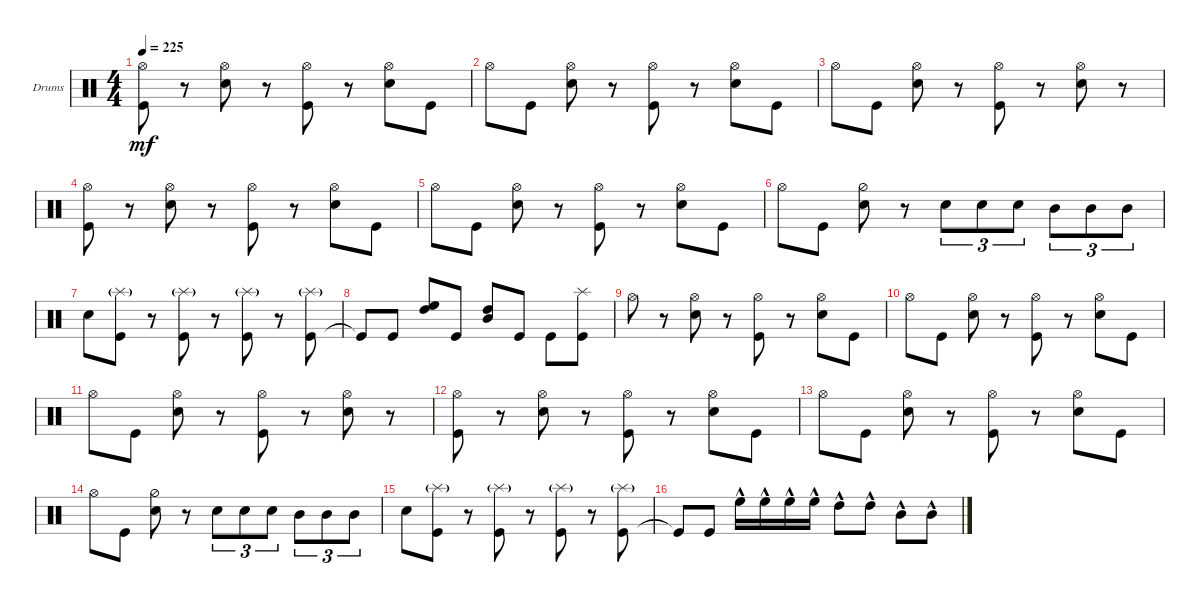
\bracketExtendMode groupsimilarinstruments
\firstSystemTrackNameOrientation horizontal
\otherSystemsTrackNameOrientation horizontal
\track ("Drumkit" "Drums") {instrument percussion}
\staff {score}
\articulation defaults
\ts (4 4)
\tempo 225
\clef neutral
\ks c
("Kick (hit)" "Hi-Hat (open)").8{dy mf} r.8 ("Snare (hit) 2" "Hi-Hat (open)").8 r.8 ("Kick (hit)" "Hi-Hat (open)").8 r.8 ("Snare (hit) 2" "Hi-Hat (open)").8 "Kick (hit)".8 |
"Hi-Hat (open)".8 "Kick (hit)".8 ("Snare (hit) 2" "Hi-Hat (open)").8 r.8 ("Kick (hit)" "Hi-Hat (open)").8 r.8 ("Snare (hit) 2" "Hi-Hat (open)").8 "Kick (hit)".8 |
"Hi-Hat (open)".8 "Kick (hit)".8 ("Snare (hit) 2" "Hi-Hat (open)").8 r.8 ("Kick (hit)" "Hi-Hat (open)").8 r.8 ("Snare (hit) 2" "Hi-Hat (open)").8 r.8 |
("Kick (hit)" "Hi-Hat (open)").8 r.8 ("Snare (hit) 2" "Hi-Hat (open)").8 r.8 ("Kick (hit)" "Hi-Hat (open)").8 r.8 ("Snare (hit) 2" "Hi-Hat (open)").8 "Kick (hit)".8 |
"Hi-Hat (open)".8 "Kick (hit)".8 ("Snare (hit) 2" "Hi-Hat (open)").8 r.8 ("Hi-Hat (open)" "Kick (hit)").8 r.8 ("Snare (hit) 2" "Hi-Hat (open)").8 "Kick (hit)".8 |
"Hi-Hat (open)".8 "Kick (hit)".8 ("Snare (hit) 2" "Hi-Hat (half)").8 r.8 "Snare (hit) 2".8{tu (3 2)} "Snare (hit) 2".8{tu (3 2)} "Snare (hit) 2".8{tu (3 2)} "Mid Tom (hit)".8{tu (3 2)} "Mid Tom (hit)".8{tu (3 2)} "Mid Tom (hit)".8{tu (3 2)} |
"Snare (hit) 2".8 ("Kick (hit)" "Splash (hit)"{g}).8 r.8 ("Kick (hit)" "Splash (hit)"{g}).8 r.8 ("Kick (hit)" "Splash (hit)"{g}).8 r.8 ("Kick (hit)" "Splash (hit)"{g}).8 |
"Kick (hit)"{t}.8 "Kick (hit)".8 ("High Tom (hit)" "High Floor Tom (hit)").8 "Kick (hit)".8 ("High Tom (hit)" "Mid Tom (hit)").8 "Kick (hit)".8 "Kick (hit)".8 ("Kick (hit)" "Splash (hit)").8 |
"Hi-Hat (open)".8 r.8 ("Snare (hit) 2" "Hi-Hat (open)").8 r.8 ("Kick (hit)" "Hi-Hat (open)").8 r.8 ("Snare (hit) 2" "Hi-Hat (open)").8 "Kick (hit)".8 |
"Hi-Hat (open)".8 "Kick (hit)".8 ("Snare (hit) 2" "Hi-Hat (open)").8 r.8 ("Kick (hit)" "Hi-Hat (open)").8 r.8 ("Snare (hit) 2" "Hi-Hat (open)").8 "Kick (hit)".8 |
"Hi-Hat (open)".8 "Kick (hit)".8 ("Snare (hit) 2" "Hi-Hat (open)").8 r.8 ("Kick (hit)" "Hi-Hat (open)").8 r.8 ("Snare (hit) 2" "Hi-Hat (open)").8 r.8 |
("Kick (hit)" "Hi-Hat (open)").8 r.8 ("Snare (hit) 2" "Hi-Hat (open)").8 r.8 ("Kick (hit)" "Hi-Hat (open)").8 r.8 ("Snare (hit) 2" "Hi-Hat (open)").8 "Kick (hit)".8 |
"Hi-Hat (open)".8 "Kick (hit)".8 ("Snare (hit) 2" "Hi-Hat (open)").8 r.8 ("Hi-Hat (open)" "Kick (hit)").8 r.8 ("Snare (hit) 2" "Hi-Hat (open)").8 "Kick (hit)".8 |
"Hi-Hat (open)".8 "Kick (hit)".8 ("Snare (hit) 2" "Hi-Hat (half)").8 r.8 "Snare (hit) 2".8{tu (3 2)} "Snare (hit) 2".8{tu (3 2)} "Snare (hit) 2".8{tu (3 2)} "Mid Tom (hit)".8{tu (3 2)} "Mid Tom (hit)".8{tu (3 2)} "Mid Tom (hit)".8{tu (3 2)} |
"Snare (hit) 2".8 ("Kick (hit)" "Splash (hit)"{g}).8 r.8 ("Kick (hit)" "Splash (hit)"{g}).8 r.8 ("Kick (hit)" "Splash (hit)"{g}).8 r.8 ("Kick (hit)" "Splash (hit)"{g}).8 |
"Kick (hit)"{t}.8 "Kick (hit)".8 "High Floor Tom (hit)"{hac}.16 "High Floor Tom (hit)"{hac}.16 "High Floor Tom (hit)"{hac}.16 "High Floor Tom (hit)"{hac}.16 "High Tom (hit)"{hac}.8 "High Tom (hit)"{hac}.8 "Mid Tom (hit)"{hac}.8 "Mid Tom (hit)"{hac}.8
